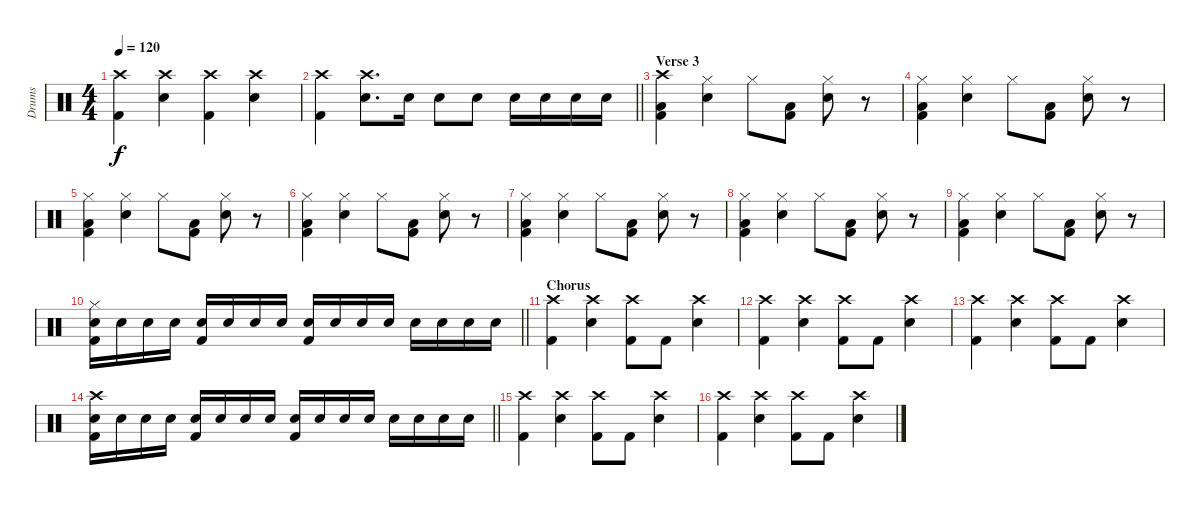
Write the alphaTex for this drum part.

\track ("Drums" "Drums") {instrument percussion}
\staff {score}
\articulation defaults
\ts (4 4)
\tempo 120
\clef neutral
\ks c
("Crash high (hit)" "Kick (hit) 2").4{dy f} ("Crash high (hit)" "Electric Snare (hit)").4 ("Crash high (hit)" "Kick (hit) 2").4 ("Crash high (hit)" "Electric Snare (hit)").4 |
\barLineRight lightlight
("Crash high (hit)" "Kick (hit) 2").4 ("Crash high (hit)" "Electric Snare (hit)").8{d} "Electric Snare (hit)".16 "Electric Snare (hit)".8 "Electric Snare (hit)".8 "Electric Snare (hit)".16 "Electric Snare (hit)".16 "Electric Snare (hit)".16 "Electric Snare (hit)".16 |
\section ("" "Verse 3")
("Crash high (hit)" "Low Floor Tom (hit)" "Kick (hit) 2").4 ("Hi-Hat (closed)" "Electric Snare (hit)").4 "Hi-Hat (closed)".8 ("Low Floor Tom (hit)" "Kick (hit) 2").8 ("Hi-Hat (closed)" "Electric Snare (hit)").8 r.8 |
("Hi-Hat (closed)" "Low Floor Tom (hit)" "Kick (hit) 2").4 ("Hi-Hat (closed)" "Electric Snare (hit)").4 "Hi-Hat (closed)".8 ("Low Floor Tom (hit)" "Kick (hit) 2").8 ("Hi-Hat (closed)" "Electric Snare (hit)").8 r.8 |
("Hi-Hat (closed)" "Low Floor Tom (hit)" "Kick (hit) 2").4 ("Hi-Hat (closed)" "Electric Snare (hit)").4 "Hi-Hat (closed)".8 ("Low Floor Tom (hit)" "Kick (hit) 2").8 ("Hi-Hat (closed)" "Electric Snare (hit)").8 r.8 |
("Hi-Hat (closed)" "Low Floor Tom (hit)" "Kick (hit) 2").4 ("Hi-Hat (closed)" "Electric Snare (hit)").4 "Hi-Hat (closed)".8 ("Low Floor Tom (hit)" "Kick (hit) 2").8 ("Hi-Hat (closed)" "Electric Snare (hit)").8 r.8 |
("Hi-Hat (closed)" "Low Floor Tom (hit)" "Kick (hit) 2").4 ("Hi-Hat (closed)" "Electric Snare (hit)").4 "Hi-Hat (closed)".8 ("Low Floor Tom (hit)" "Kick (hit) 2").8 ("Hi-Hat (closed)" "Electric Snare (hit)").8 r.8 |
("Hi-Hat (closed)" "Low Floor Tom (hit)" "Kick (hit) 2").4 ("Hi-Hat (closed)" "Electric Snare (hit)").4 "Hi-Hat (closed)".8 ("Low Floor Tom (hit)" "Kick (hit) 2").8 ("Hi-Hat (closed)" "Electric Snare (hit)").8 r.8 |
("Hi-Hat (closed)" "Low Floor Tom (hit)" "Kick (hit) 2").4 ("Hi-Hat (closed)" "Electric Snare (hit)").4 "Hi-Hat (closed)".8 ("Low Floor Tom (hit)" "Kick (hit) 2").8 ("Hi-Hat (closed)" "Electric Snare (hit)").8 r.8 |
\barLineRight lightlight
("Hi-Hat (closed)" "Electric Snare (hit)" "Kick (hit) 2").16 "Electric Snare (hit)".16 "Electric Snare (hit)".16 "Electric Snare (hit)".16 ("Electric Snare (hit)" "Kick (hit) 2").16 "Electric Snare (hit)".16 "Electric Snare (hit)".16 "Electric Snare (hit)".16 ("Electric Snare (hit)" "Kick (hit) 2").16 "Electric Snare (hit)".16 "Electric Snare (hit)".16 "Electric Snare (hit)".16 "Electric Snare (hit)".16 "Electric Snare (hit)".16 "Electric Snare (hit)".16 "Electric Snare (hit)".16 |
\section ("" "Chorus")
("Crash high (hit)" "Kick (hit) 2").4 ("Crash high (hit)" "Electric Snare (hit)").4 ("Crash high (hit)" "Kick (hit) 2").8 "Kick (hit) 2".8 ("Crash high (hit)" "Electric Snare (hit)").4 |
("Crash high (hit)" "Kick (hit) 2").4 ("Crash high (hit)" "Electric Snare (hit)").4 ("Crash high (hit)" "Kick (hit) 2").8 "Kick (hit) 2".8 ("Crash high (hit)" "Electric Snare (hit)").4 |
("Crash high (hit)" "Kick (hit) 2").4 ("Crash high (hit)" "Electric Snare (hit)").4 ("Crash high (hit)" "Kick (hit) 2").8 "Kick (hit) 2".8 ("Crash high (hit)" "Electric Snare (hit)").4 |
\barLineRight lightlight
("Crash high (hit)" "Electric Snare (hit)" "Kick (hit) 2").16 "Electric Snare (hit)".16 "Electric Snare (hit)".16 "Electric Snare (hit)".16 ("Electric Snare (hit)" "Kick (hit) 2").16 "Electric Snare (hit)".16 "Electric Snare (hit)".16 "Electric Snare (hit)".16 ("Electric Snare (hit)" "Kick (hit) 2").16 "Electric Snare (hit)".16 "Electric Snare (hit)".16 "Electric Snare (hit)".16 "Electric Snare (hit)".16 "Electric Snare (hit)".16 "Electric Snare (hit)".16 "Electric Snare (hit)".16 |
("Crash high (hit)" "Kick (hit) 2").4 ("Crash high (hit)" "Electric Snare (hit)").4 ("Crash high (hit)" "Kick (hit) 2").8 "Kick (hit) 2".8 ("Crash high (hit)" "Electric Snare (hit)").4 |
("Crash high (hit)" "Kick (hit) 2").4 ("Crash high (hit)" "Electric Snare (hit)").4 ("Crash high (hit)" "Kick (hit) 2").8 "Kick (hit) 2".8 ("Crash high (hit)" "Electric Snare (hit)").4
